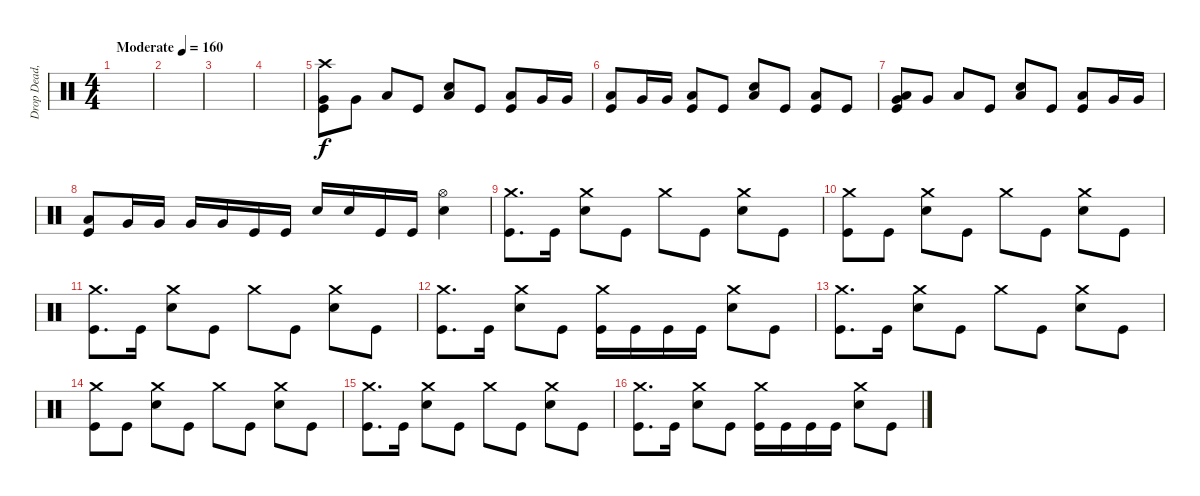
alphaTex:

\track ("Drop Dead, Johnny" "Drop Dead,") {instrument percussion}
\staff {score}
\articulation defaults
\ts (4 4)
\tempo (160 "Moderate")
\clef neutral
\ks c
|
|
|
|
("Crash high (hit)" "Very Low Tom (hit)" "Kick (hit)").8 "Very Low Tom (hit)".8 "Low Floor Tom (hit)".8 "Kick (hit)".8 ("Low Floor Tom (hit)" "Electric Snare (hit)").8 "Kick (hit)".8 ("Low Floor Tom (hit)" "Kick (hit)").8 "Very Low Tom (hit)".16 "Very Low Tom (hit)".16 |
("Low Floor Tom (hit)" "Kick (hit)").8 "Very Low Tom (hit)".16 "Very Low Tom (hit)".16 ("Low Floor Tom (hit)" "Kick (hit)").8 "Kick (hit)".8 ("Low Floor Tom (hit)" "Electric Snare (hit)").8 "Kick (hit)".8 ("Low Floor Tom (hit)" "Kick (hit)").8 "Kick (hit)".8 |
("Very Low Tom (hit)" "Low Floor Tom (hit)" "Kick (hit)").8 "Very Low Tom (hit)".8 "Low Floor Tom (hit)".8 "Kick (hit)".8 ("Low Floor Tom (hit)" "Electric Snare (hit)").8 "Kick (hit)".8 ("Low Floor Tom (hit)" "Kick (hit)").8 "Very Low Tom (hit)".16 "Very Low Tom (hit)".16 |
("Low Floor Tom (hit)" "Kick (hit)").8 "Very Low Tom (hit)".16 "Very Low Tom (hit)".16 "Very Low Tom (hit)".16 "Very Low Tom (hit)".16 "Kick (hit)".16 "Kick (hit)".16 "Electric Snare (hit)".16 "Electric Snare (hit)".16 "Kick (hit)".16 "Kick (hit)".16 ("Hi-Hat (open)" "Electric Snare (hit)").4 |
("Crash medium (hit)" "Kick (hit)").8{d} "Kick (hit)".16 ("Crash medium (hit)" "Electric Snare (hit)").8 "Kick (hit)".8 "Crash medium (hit)".8 "Kick (hit)".8 ("Crash medium (hit)" "Electric Snare (hit)").8 "Kick (hit)".8 |
("Crash medium (hit)" "Kick (hit)").8 "Kick (hit)".8 ("Crash medium (hit)" "Electric Snare (hit)").8 "Kick (hit)".8 "Crash medium (hit)".8 "Kick (hit)".8 ("Crash medium (hit)" "Electric Snare (hit)").8 "Kick (hit)".8 |
("Crash medium (hit)" "Kick (hit)").8{d} "Kick (hit)".16 ("Crash medium (hit)" "Electric Snare (hit)").8 "Kick (hit)".8 "Crash medium (hit)".8 "Kick (hit)".8 ("Crash medium (hit)" "Electric Snare (hit)").8 "Kick (hit)".8 |
("Crash medium (hit)" "Kick (hit)").8{d} "Kick (hit)".16 ("Crash medium (hit)" "Electric Snare (hit)").8 "Kick (hit)".8 ("Crash medium (hit)" "Kick (hit)").16 "Kick (hit)".16 "Kick (hit)".16 "Kick (hit)".16 ("Crash medium (hit)" "Electric Snare (hit)").8 "Kick (hit)".8 |
("Crash medium (hit)" "Kick (hit)").8{d} "Kick (hit)".16 ("Crash medium (hit)" "Electric Snare (hit)").8 "Kick (hit)".8 "Crash medium (hit)".8 "Kick (hit)".8 ("Crash medium (hit)" "Electric Snare (hit)").8 "Kick (hit)".8 |
("Crash medium (hit)" "Kick (hit)").8 "Kick (hit)".8 ("Crash medium (hit)" "Electric Snare (hit)").8 "Kick (hit)".8 "Crash medium (hit)".8 "Kick (hit)".8 ("Crash medium (hit)" "Electric Snare (hit)").8 "Kick (hit)".8 |
("Crash medium (hit)" "Kick (hit)").8{d} "Kick (hit)".16 ("Crash medium (hit)" "Electric Snare (hit)").8 "Kick (hit)".8 "Crash medium (hit)".8 "Kick (hit)".8 ("Crash medium (hit)" "Electric Snare (hit)").8 "Kick (hit)".8 |
("Crash medium (hit)" "Kick (hit)").8{d} "Kick (hit)".16 ("Crash medium (hit)" "Electric Snare (hit)").8 "Kick (hit)".8 ("Crash medium (hit)" "Kick (hit)").16 "Kick (hit)".16 "Kick (hit)".16 "Kick (hit)".16 ("Crash medium (hit)" "Electric Snare (hit)").8 "Kick (hit)".8
